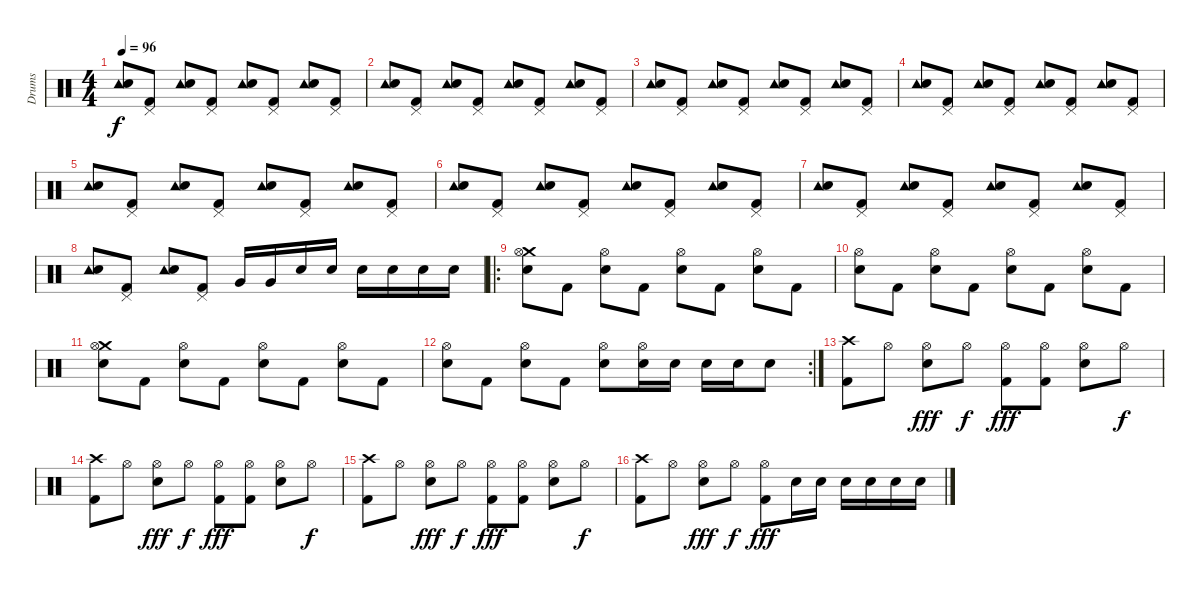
\track ("Drums" "Drums") {instrument percussion}
\staff {score}
\articulation defaults
\ts (4 4)
\tempo 96
\clef neutral
\ks c
("Tambourine (hit)" "Electric Snare (hit)").8{dy f} ("Pedal Hi-Hat (hit)" "Kick (hit) 2").8 ("Tambourine (hit)" "Electric Snare (hit)").8 ("Pedal Hi-Hat (hit)" "Kick (hit) 2").8 ("Tambourine (hit)" "Electric Snare (hit)").8 ("Pedal Hi-Hat (hit)" "Kick (hit) 2").8 ("Tambourine (hit)" "Electric Snare (hit)").8 ("Pedal Hi-Hat (hit)" "Kick (hit) 2").8 |
("Tambourine (hit)" "Electric Snare (hit)").8 ("Pedal Hi-Hat (hit)" "Kick (hit) 2").8 ("Tambourine (hit)" "Electric Snare (hit)").8 ("Pedal Hi-Hat (hit)" "Kick (hit) 2").8 ("Tambourine (hit)" "Electric Snare (hit)").8 ("Pedal Hi-Hat (hit)" "Kick (hit) 2").8 ("Tambourine (hit)" "Electric Snare (hit)").8 ("Pedal Hi-Hat (hit)" "Kick (hit) 2").8 |
("Tambourine (hit)" "Electric Snare (hit)").8 ("Pedal Hi-Hat (hit)" "Kick (hit) 2").8 ("Tambourine (hit)" "Electric Snare (hit)").8 ("Pedal Hi-Hat (hit)" "Kick (hit) 2").8 ("Tambourine (hit)" "Electric Snare (hit)").8 ("Pedal Hi-Hat (hit)" "Kick (hit) 2").8 ("Tambourine (hit)" "Electric Snare (hit)").8 ("Pedal Hi-Hat (hit)" "Kick (hit) 2").8 |
("Tambourine (hit)" "Electric Snare (hit)").8 ("Pedal Hi-Hat (hit)" "Kick (hit) 2").8 ("Tambourine (hit)" "Electric Snare (hit)").8 ("Pedal Hi-Hat (hit)" "Kick (hit) 2").8 ("Tambourine (hit)" "Electric Snare (hit)").8 ("Pedal Hi-Hat (hit)" "Kick (hit) 2").8 ("Tambourine (hit)" "Electric Snare (hit)").8 ("Pedal Hi-Hat (hit)" "Kick (hit) 2").8 |
("Tambourine (hit)" "Electric Snare (hit)").8 ("Pedal Hi-Hat (hit)" "Kick (hit) 2").8 ("Tambourine (hit)" "Electric Snare (hit)").8 ("Pedal Hi-Hat (hit)" "Kick (hit) 2").8 ("Tambourine (hit)" "Electric Snare (hit)").8 ("Pedal Hi-Hat (hit)" "Kick (hit) 2").8 ("Tambourine (hit)" "Electric Snare (hit)").8 ("Pedal Hi-Hat (hit)" "Kick (hit) 2").8 |
("Tambourine (hit)" "Electric Snare (hit)").8 ("Pedal Hi-Hat (hit)" "Kick (hit) 2").8 ("Tambourine (hit)" "Electric Snare (hit)").8 ("Pedal Hi-Hat (hit)" "Kick (hit) 2").8 ("Tambourine (hit)" "Electric Snare (hit)").8 ("Pedal Hi-Hat (hit)" "Kick (hit) 2").8 ("Tambourine (hit)" "Electric Snare (hit)").8 ("Pedal Hi-Hat (hit)" "Kick (hit) 2").8 |
("Tambourine (hit)" "Electric Snare (hit)").8 ("Pedal Hi-Hat (hit)" "Kick (hit) 2").8 ("Tambourine (hit)" "Electric Snare (hit)").8 ("Pedal Hi-Hat (hit)" "Kick (hit) 2").8 ("Tambourine (hit)" "Electric Snare (hit)").8 ("Pedal Hi-Hat (hit)" "Kick (hit) 2").8 ("Tambourine (hit)" "Electric Snare (hit)").8 ("Pedal Hi-Hat (hit)" "Kick (hit) 2").8 |
("Tambourine (hit)" "Electric Snare (hit)").8 ("Pedal Hi-Hat (hit)" "Kick (hit) 2").8 ("Tambourine (hit)" "Electric Snare (hit)").8 ("Pedal Hi-Hat (hit)" "Kick (hit) 2").8 "Very Low Tom (hit)".16 "Very Low Tom (hit)".16 "Electric Snare (hit)".16 "Electric Snare (hit)".16 "Electric Snare (hit)".16 "Electric Snare (hit)".16 "Electric Snare (hit)".16 "Electric Snare (hit)".16 |
\ro
("Crash medium (hit)" "Hi-Hat (open)" "Electric Snare (hit)").8 "Kick (hit) 2".8 ("Hi-Hat (open)" "Electric Snare (hit)").8 "Kick (hit) 2".8 ("Hi-Hat (open)" "Electric Snare (hit)").8 "Kick (hit) 2".8 ("Hi-Hat (open)" "Electric Snare (hit)").8 "Kick (hit) 2".8 |
("Hi-Hat (open)" "Electric Snare (hit)").8 "Kick (hit) 2".8 ("Hi-Hat (open)" "Electric Snare (hit)").8 "Kick (hit) 2".8 ("Hi-Hat (open)" "Electric Snare (hit)").8 "Kick (hit) 2".8 ("Hi-Hat (open)" "Electric Snare (hit)").8 "Kick (hit) 2".8 |
("Crash medium (hit)" "Hi-Hat (open)" "Electric Snare (hit)").8 "Kick (hit) 2".8 ("Hi-Hat (open)" "Electric Snare (hit)").8 "Kick (hit) 2".8 ("Hi-Hat (open)" "Electric Snare (hit)").8 "Kick (hit) 2".8 ("Hi-Hat (open)" "Electric Snare (hit)").8 "Kick (hit) 2".8 |
\rc 2
("Hi-Hat (open)" "Electric Snare (hit)").8 "Kick (hit) 2".8 ("Hi-Hat (open)" "Electric Snare (hit)").8 "Kick (hit) 2".8 ("Hi-Hat (open)" "Electric Snare (hit)").8 ("Hi-Hat (open)" "Snare (hit) 2").16 "Snare (hit) 2".16 "Snare (hit) 2".16 "Snare (hit) 2".16 "Snare (hit) 2".8 |
("Crash high (hit)" "Kick (hit) 2").8{volume 14} "Hi-Hat (open)".8 ("Hi-Hat (open)" "Electric Snare (hit)").8{dy fff} "Hi-Hat (open)".8{dy f} ("Hi-Hat (open)" "Kick (hit) 2").8{dy fff} ("Hi-Hat (open)" "Kick (hit) 2").8 ("Hi-Hat (open)" "Electric Snare (hit)").8 "Hi-Hat (open)".8{dy f} |
("Crash high (hit)" "Kick (hit) 2").8 "Hi-Hat (open)".8 ("Hi-Hat (open)" "Electric Snare (hit)").8{dy fff} "Hi-Hat (open)".8{dy f} ("Hi-Hat (open)" "Kick (hit) 2").8{dy fff} ("Hi-Hat (open)" "Kick (hit) 2").8 ("Hi-Hat (open)" "Electric Snare (hit)").8 "Hi-Hat (open)".8{dy f} |
("Crash high (hit)" "Kick (hit) 2").8 "Hi-Hat (open)".8 ("Hi-Hat (open)" "Electric Snare (hit)").8{dy fff} "Hi-Hat (open)".8{dy f} ("Hi-Hat (open)" "Kick (hit) 2").8{dy fff} ("Hi-Hat (open)" "Kick (hit) 2").8 ("Hi-Hat (open)" "Electric Snare (hit)").8 "Hi-Hat (open)".8{dy f} |
("Crash high (hit)" "Kick (hit) 2").8 "Hi-Hat (open)".8 ("Hi-Hat (open)" "Electric Snare (hit)").8{dy fff} "Hi-Hat (open)".8{dy f} ("Hi-Hat (open)" "Kick (hit) 2").8{dy fff} "Electric Snare (hit)".16 "Electric Snare (hit)".16 "Electric Snare (hit)".16 "Electric Snare (hit)".16 "Electric Snare (hit)".16 "Electric Snare (hit)".16
